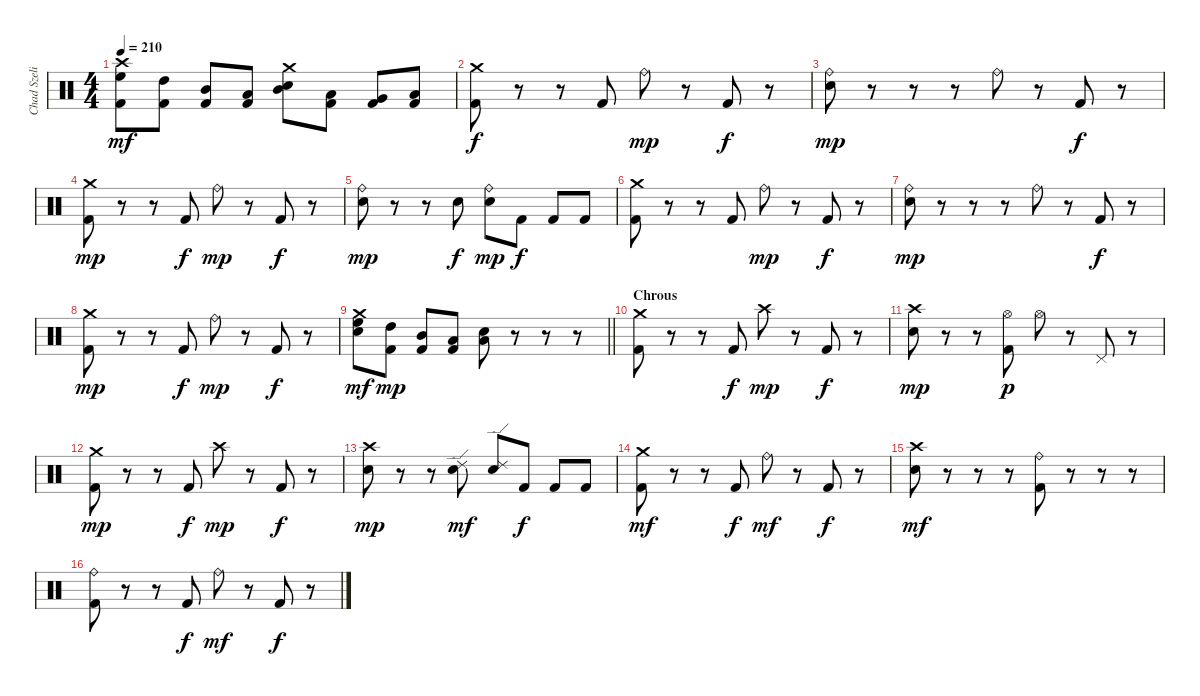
\track ("Chad Szeliga" "Chad Szeli") {instrument percussion}
\staff {score}
\articulation defaults
\ts (4 4)
\tempo 210
\clef neutral
\ks c
("Kick (hit) 2" "High Floor Tom (hit)" "Crash high (hit)").8{dy mf} ("Kick (hit) 2" "High Tom (hit)").8 ("Kick (hit) 2" "Mid Tom (hit)").8 ("Kick (hit) 2" "Low Tom (hit)").8 ("Snare (hit) 2" "Mid Tom (hit)" "Crash medium (hit)").8 ("Kick (hit) 2" "Low Tom (hit)").8 ("Kick (hit) 2" "Very Low Tom (hit)").8 ("Kick (hit) 2" "Low Floor Tom (hit)").8 |
("Kick (hit) 2" "Crash medium (hit)").8{dy f} r.8 r.8 "Kick (hit) 2".8 "Ride (bell)".8{dy mp} r.8 "Kick (hit) 2".8{dy f} r.8 |
("Snare (hit) 2" "Ride (bell)").8{dy mp} r.8 r.8 r.8 "Ride (bell)".8 r.8 "Kick (hit) 2".8{dy f} r.8 |
("Kick (hit) 2" "Crash medium (hit)").8{dy mp} r.8 r.8 "Kick (hit) 2".8{dy f} "Ride (bell)".8{dy mp} r.8 "Kick (hit) 2".8{dy f} r.8 |
("Snare (hit) 2" "Ride (bell)").8{dy mp} r.8 r.8 "Snare (hit) 2".8{dy f} ("Snare (hit) 2" "Ride (bell)").8{dy mp} "Kick (hit) 2".8{dy f} "Kick (hit) 2".8 "Kick (hit) 2".8 |
("Kick (hit) 2" "Crash medium (hit)").8 r.8 r.8 "Kick (hit) 2".8 "Ride (bell)".8{dy mp} r.8 "Kick (hit) 2".8{dy f} r.8 |
("Snare (hit) 2" "Ride (bell)").8{dy mp} r.8 r.8 r.8 "Ride (bell)".8 r.8 "Kick (hit) 2".8{dy f} r.8 |
("Kick (hit) 2" "Crash medium (hit)").8{dy mp} r.8 r.8 "Kick (hit) 2".8{dy f} "Ride (bell)".8{dy mp} r.8 "Kick (hit) 2".8{dy f} r.8 |
\barLineRight lightlight
("Snare (hit) 2" "High Floor Tom (hit)" "Crash medium (hit)").8{dy mf} ("Kick (hit) 2" "High Tom (hit)").8{dy mp} ("Kick (hit) 2" "Mid Tom (hit)").8 ("Kick (hit) 2" "Low Floor Tom (hit)").8 ("Snare (hit) 2" "Low Tom (hit)").8 r.8 r.8 r.8 |
\section ("" "Chrous")
("Kick (hit) 2" "Crash medium (hit)").8 r.8 r.8 "Kick (hit) 2".8{dy f} "Crash high (hit)".8{dy mp} r.8 "Kick (hit) 2".8{dy f} r.8 |
("Snare (hit) 2" "Crash high (hit)").8{dy mp} r.8 r.8 ("Kick (hit) 2" "Hi-Hat (open)").8{dy p} "Hi-Hat (open)".8 r.8 "Pedal Hi-Hat (hit)".8 r.8 |
("Kick (hit) 2" "Crash medium (hit)").8{dy mp} r.8 r.8 "Kick (hit) 2".8{dy f} "Crash high (hit)".8{dy mp} r.8 "Kick (hit) 2".8{dy f} r.8 |
("Snare (hit) 2" "Crash high (hit)").8{dy mp} r.8 r.8 ("Snare (hit) 2" "Ride (edge) 2").8{dy mf} ("Snare (hit) 2" "Ride (edge) 2").8 "Kick (hit) 2".8{dy f} "Kick (hit) 2".8 "Kick (hit) 2".8 |
("Kick (hit) 2" "Crash medium (hit)").8{dy mf} r.8 r.8 "Kick (hit) 2".8{dy f} "Ride (bell)".8{dy mf} r.8 "Kick (hit) 2".8{dy f} r.8 |
("Snare (hit) 2" "Crash high (hit)").8{dy mf} r.8 r.8 r.8 ("Kick (hit) 2" "Ride (bell)").8 r.8 r.8 r.8 |
("Kick (hit) 2" "Ride (bell)").8 r.8 r.8 "Kick (hit) 2".8{dy f} "Ride (bell)".8{dy mf} r.8 "Kick (hit) 2".8{dy f} r.8
